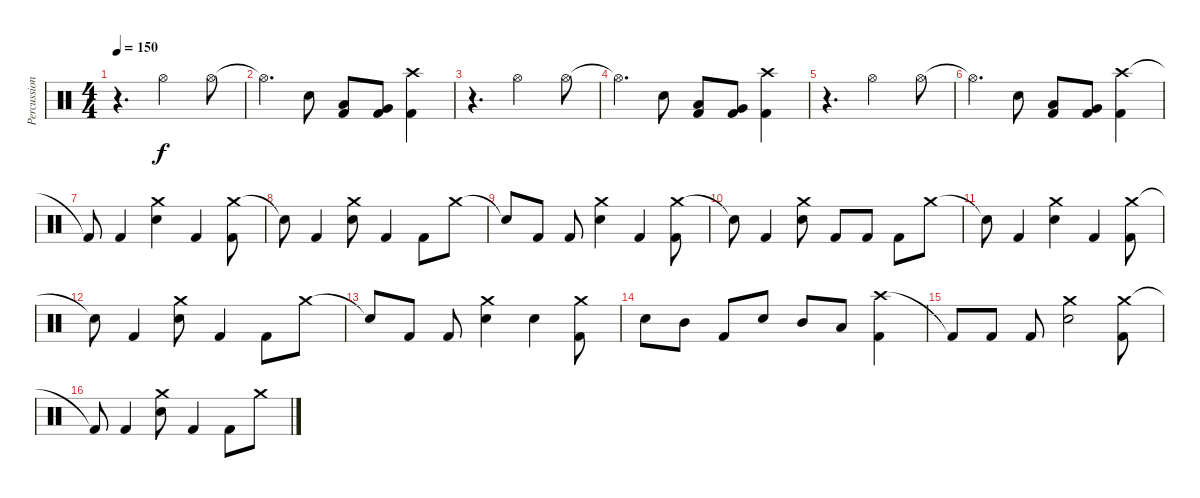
\track ("Percussion" "Percussion") {instrument percussion}
\staff {score}
\articulation defaults
\ts (4 4)
\tempo 150
\clef neutral
\ks c
r.4{d dy f} "Hi-Hat (open)".2 "Hi-Hat (open)".8 |
"Hi-Hat (open)"{t}.4{d} "Electric Snare (hit)".8 ("Low Tom (hit)" "Kick (hit) 2").8 ("Very Low Tom (hit)" "Kick (hit) 2").8 ("Crash high (hit)" "Kick (hit) 2").4 |
r.4{d} "Hi-Hat (open)".2 "Hi-Hat (open)".8 |
"Hi-Hat (open)"{t}.4{d} "Electric Snare (hit)".8 ("Low Tom (hit)" "Kick (hit) 2").8 ("Very Low Tom (hit)" "Kick (hit) 2").8 ("Crash high (hit)" "Kick (hit) 2").4 |
r.4{d} "Hi-Hat (open)".2 "Hi-Hat (open)".8 |
"Hi-Hat (open)"{t}.4{d} "Electric Snare (hit)".8 ("Low Tom (hit)" "Kick (hit) 2").8 ("Very Low Tom (hit)" "Kick (hit) 2").8 ("Crash high (hit)" "Kick (hit) 2").4 |
"Kick (hit) 2"{t}.8 "Kick (hit) 2".4 ("Crash medium (hit)" "Electric Snare (hit)").4 "Kick (hit) 2".4 ("Crash medium (hit)" "Kick (hit) 2").8 |
"Snare (hit)"{t}.8 "Kick (hit) 2".4 ("Crash medium (hit)" "Electric Snare (hit)").8 "Kick (hit) 2".4 "Kick (hit) 2".8 "Crash medium (hit)".8 |
"Snare (hit)"{t}.8 "Kick (hit) 2".8 "Kick (hit) 2".8 ("Crash medium (hit)" "Electric Snare (hit)").4 "Kick (hit) 2".4 ("Crash medium (hit)" "Kick (hit) 2").8 |
"Snare (hit)"{t}.8 "Kick (hit) 2".4 ("Crash medium (hit)" "Electric Snare (hit)").8 "Kick (hit) 2".8 "Kick (hit) 2".8 "Kick (hit) 2".8 "Crash medium (hit)".8 |
"Snare (hit)"{t}.8 "Kick (hit) 2".4 ("Crash medium (hit)" "Electric Snare (hit)").4 "Kick (hit) 2".4 ("Crash medium (hit)" "Kick (hit) 2").8 |
"Snare (hit)"{t}.8 "Kick (hit) 2".4 ("Crash medium (hit)" "Electric Snare (hit)").8 "Kick (hit) 2".4 "Kick (hit) 2".8 "Crash medium (hit)".8 |
"Snare (hit)"{t}.8 "Kick (hit) 2".8 "Kick (hit) 2".8 ("Crash medium (hit)" "Electric Snare (hit)").4 "Electric Snare (hit)".4 ("Crash medium (hit)" "Kick (hit) 2").8 |
"Electric Snare (hit)".8 "Mid Tom (hit)".8 "Kick (hit) 2".8 "Electric Snare (hit)".8 "Mid Tom (hit)".8 "Low Tom (hit)".8 ("Crash high (hit)" "Kick (hit) 2").4 |
"Kick (hit) 2"{t}.8 "Kick (hit) 2".8 "Kick (hit) 2".8 ("Crash medium (hit)" "Electric Snare (hit)").2 ("Crash medium (hit)" "Kick (hit) 2").8 |
"Kick (hit) 2"{t}.8 "Kick (hit) 2".4 ("Crash medium (hit)" "Electric Snare (hit)").8 "Kick (hit) 2".4 "Kick (hit) 2".8 "Crash medium (hit)".8
